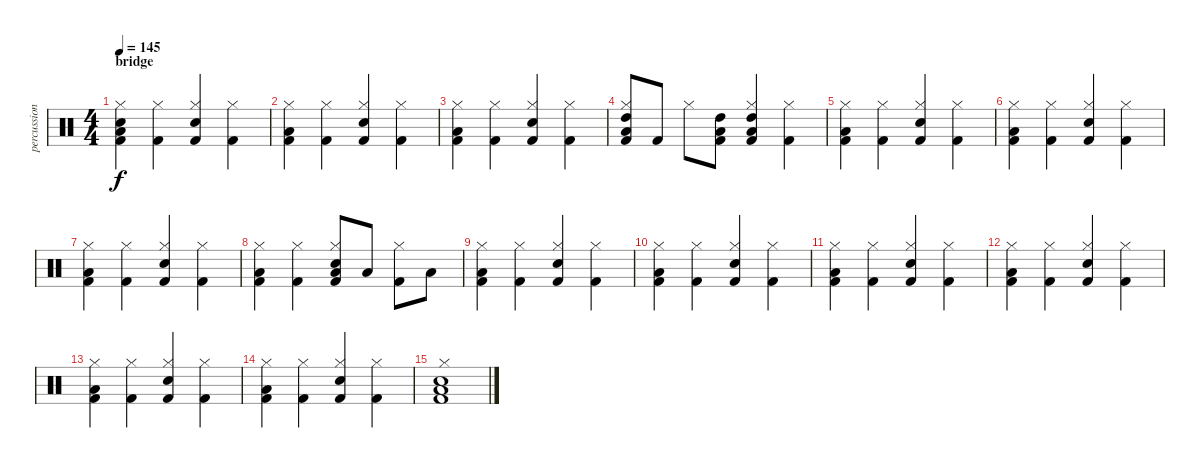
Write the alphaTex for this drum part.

\track ("percussion" "percussion") {instrument percussion}
\staff {score}
\articulation defaults
\ts (4 4)
\section ("" "bridge")
\tempo 145
\clef neutral
\ks c
("Electric Snare (hit)" "Kick (hit) 2" "Low Tom (hit)" "Hi-Hat (closed)").4{dy f} ("Kick (hit) 2" "Hi-Hat (closed)").4 ("Snare (hit) 2" "Kick (hit) 2" "Hi-Hat (closed)").4 ("Kick (hit) 2" "Hi-Hat (closed)").4 |
("Kick (hit) 2" "Low Tom (hit)" "Hi-Hat (closed)").4 ("Kick (hit) 2" "Hi-Hat (closed)").4 ("Snare (hit) 2" "Kick (hit) 2" "Hi-Hat (closed)").4 ("Kick (hit) 2" "Hi-Hat (closed)").4 |
("Kick (hit) 2" "Low Tom (hit)" "Hi-Hat (closed)").4 ("Kick (hit) 2" "Hi-Hat (closed)").4 ("Snare (hit) 2" "Kick (hit) 2" "Hi-Hat (closed)").4 ("Kick (hit) 2" "Hi-Hat (closed)").4 |
("High Tom (hit)" "Kick (hit) 2" "Low Tom (hit)" "Hi-Hat (closed)").8 "Kick (hit) 2".8 "Hi-Hat (closed)".8 ("High Tom (hit)" "Kick (hit) 2" "Low Tom (hit)").8 ("High Tom (hit)" "Kick (hit) 2" "Low Tom (hit)" "Hi-Hat (closed)").4 ("Kick (hit) 2" "Hi-Hat (closed)").4 |
("Kick (hit) 2" "Low Tom (hit)" "Hi-Hat (closed)").4 ("Kick (hit) 2" "Hi-Hat (closed)").4 ("Snare (hit) 2" "Kick (hit) 2" "Hi-Hat (closed)").4 ("Kick (hit) 2" "Hi-Hat (closed)").4 |
("Kick (hit) 2" "Low Tom (hit)" "Hi-Hat (closed)").4 ("Kick (hit) 2" "Hi-Hat (closed)").4 ("Snare (hit) 2" "Kick (hit) 2" "Hi-Hat (closed)").4 ("Kick (hit) 2" "Hi-Hat (closed)").4 |
("Kick (hit) 2" "Low Tom (hit)" "Hi-Hat (closed)").4 ("Kick (hit) 2" "Hi-Hat (closed)").4 ("Snare (hit) 2" "Kick (hit) 2" "Hi-Hat (closed)").4 ("Kick (hit) 2" "Hi-Hat (closed)").4 |
("Kick (hit) 2" "Low Tom (hit)" "Hi-Hat (closed)").4 ("Kick (hit) 2" "Hi-Hat (closed)").4 ("Snare (hit) 2" "Kick (hit) 2" "Low Tom (hit)" "Hi-Hat (closed)").8 "Low Tom (hit)".8 ("Kick (hit) 2" "Hi-Hat (closed)").8 "Low Tom (hit)".8 |
("Kick (hit) 2" "Low Tom (hit)" "Hi-Hat (closed)").4 ("Kick (hit) 2" "Hi-Hat (closed)").4 ("Snare (hit) 2" "Kick (hit) 2" "Hi-Hat (closed)").4 ("Kick (hit) 2" "Hi-Hat (closed)").4 |
("Kick (hit) 2" "Low Tom (hit)" "Hi-Hat (closed)").4 ("Kick (hit) 2" "Hi-Hat (closed)").4 ("Snare (hit) 2" "Kick (hit) 2" "Hi-Hat (closed)").4 ("Kick (hit) 2" "Hi-Hat (closed)").4 |
("Kick (hit) 2" "Low Tom (hit)" "Hi-Hat (closed)").4 ("Kick (hit) 2" "Hi-Hat (closed)").4 ("Snare (hit) 2" "Kick (hit) 2" "Hi-Hat (closed)").4 ("Kick (hit) 2" "Hi-Hat (closed)").4 |
("Kick (hit) 2" "Low Tom (hit)" "Hi-Hat (closed)").4 ("Kick (hit) 2" "Hi-Hat (closed)").4 ("Snare (hit) 2" "Kick (hit) 2" "Hi-Hat (closed)").4 ("Kick (hit) 2" "Hi-Hat (closed)").4 |
("Kick (hit) 2" "Low Tom (hit)" "Hi-Hat (closed)").4 ("Kick (hit) 2" "Hi-Hat (closed)").4 ("Snare (hit) 2" "Kick (hit) 2" "Hi-Hat (closed)").4 ("Kick (hit) 2" "Hi-Hat (closed)").4 |
("Kick (hit) 2" "Low Tom (hit)" "Hi-Hat (closed)").4 ("Kick (hit) 2" "Hi-Hat (closed)").4 ("Snare (hit) 2" "Kick (hit) 2" "Hi-Hat (closed)").4 ("Kick (hit) 2" "Hi-Hat (closed)").4 |
("Snare (hit) 2" "Kick (hit) 2" "Low Tom (hit)" "Hi-Hat (closed)").1
